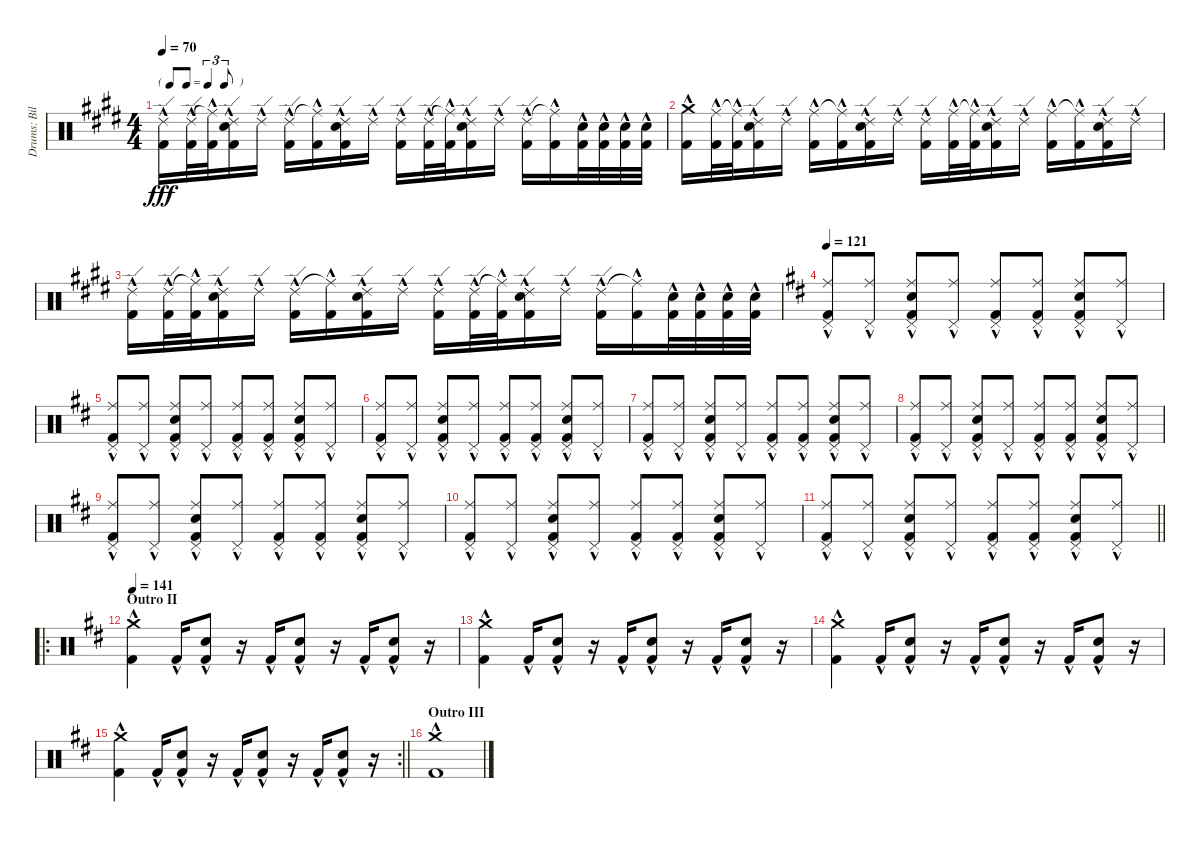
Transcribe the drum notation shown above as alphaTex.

\track ("Drums: Bill" "Drums: Bil") {instrument percussion}
\staff {score}
\articulation defaults
\ts (4 4)
\tf triplet8th
\tempo 70
\clef neutral
\ks e
("Ride (edge) 2"{hac} "Kick (hit) 2"{hac}).16{dy fff} ("Ride (edge) 2"{hac} "Kick (hit) 2"{hac}).32 ("Ride (middle)"{t} "Kick (hit) 2"{hac}).32 ("Ride (edge) 2"{hac} "Snare (hit) 2"{hac} "Kick (hit) 2"{hac}).16 "Ride (edge) 2"{hac}.16 ("Ride (edge) 2"{hac} "Kick (hit) 2"{hac}).16 ("Ride (middle)"{t} "Kick (hit) 2"{hac}).16 ("Ride (edge) 2"{hac} "Snare (hit) 2"{hac} "Kick (hit) 2"{hac}).16 "Ride (edge) 2"{hac}.16 ("Ride (edge) 2"{hac} "Kick (hit) 2"{hac}).16 ("Ride (edge) 2"{hac} "Kick (hit) 2"{hac}).32 ("Ride (middle)"{t} "Kick (hit) 2"{hac}).32 ("Ride (edge) 2"{hac} "Snare (hit) 2"{hac} "Kick (hit) 2"{hac}).16 "Ride (edge) 2"{hac}.16 ("Ride (edge) 2"{hac} "Kick (hit) 2"{hac}).16 ("Ride (middle)"{t} "Kick (hit) 2"{hac}).16 ("Snare (hit) 2"{hac} "Kick (hit) 2"{hac}).32 ("Snare (hit) 2"{hac} "Kick (hit) 2"{hac}).32 ("Snare (hit) 2"{hac} "Kick (hit) 2"{hac}).32 ("Snare (hit) 2"{hac} "Kick (hit) 2"{hac}).32 |
("Crash medium (hit)"{hac} "Kick (hit) 2"{hac}).16 ("Ride (middle)"{hac} "Kick (hit) 2"{hac}).32 ("Ride (middle)"{t} "Kick (hit) 2"{hac}).32 ("Ride (edge) 2"{hac} "Snare (hit) 2"{hac} "Kick (hit) 2"{hac}).16 "Ride (edge) 2"{hac}.16 ("Ride (middle)"{hac} "Kick (hit) 2"{hac}).16 ("Ride (middle)"{t} "Kick (hit) 2"{hac}).16 ("Ride (edge) 2"{hac} "Snare (hit) 2"{hac} "Kick (hit) 2"{hac}).16 "Ride (edge) 2"{hac}.16 ("Ride (edge) 2"{hac} "Kick (hit) 2"{hac}).16 ("Ride (middle)"{hac} "Kick (hit) 2"{hac}).32 ("Ride (middle)"{t} "Kick (hit) 2"{hac}).32 ("Ride (edge) 2"{hac} "Snare (hit) 2"{hac} "Kick (hit) 2"{hac}).16 "Ride (edge) 2"{hac}.16 ("Ride (middle)"{hac} "Kick (hit) 2"{hac}).16 ("Ride (middle)"{t} "Kick (hit) 2"{hac}).16 ("Ride (edge) 2"{hac} "Snare (hit) 2"{hac} "Kick (hit) 2"{hac}).16 "Ride (edge) 2"{hac}.16 |
("Ride (edge) 2"{hac} "Kick (hit) 2"{hac}).16 ("Ride (edge) 2"{hac} "Kick (hit) 2"{hac}).32 ("Ride (middle)"{t} "Kick (hit) 2"{hac}).32 ("Ride (edge) 2"{hac} "Snare (hit) 2"{hac} "Kick (hit) 2"{hac}).16 "Ride (edge) 2"{hac}.16 ("Ride (edge) 2"{hac} "Kick (hit) 2"{hac}).16 ("Ride (middle)"{t} "Kick (hit) 2"{hac}).16 ("Ride (edge) 2"{hac} "Snare (hit) 2"{hac} "Kick (hit) 2"{hac}).16 "Ride (edge) 2"{hac}.16 ("Ride (edge) 2"{hac} "Kick (hit) 2"{hac}).16 ("Ride (edge) 2"{hac} "Kick (hit) 2"{hac}).32 ("Ride (middle)"{t} "Kick (hit) 2"{hac}).32 ("Ride (edge) 2"{hac} "Snare (hit) 2"{hac} "Kick (hit) 2"{hac}).16 "Ride (edge) 2"{hac}.16 ("Ride (edge) 2"{hac} "Kick (hit) 2"{hac}).16 ("Ride (middle)"{t} "Kick (hit) 2"{hac}).16 ("Snare (hit) 2"{hac} "Kick (hit) 2"{hac}).32 ("Snare (hit) 2"{hac} "Kick (hit) 2"{hac}).32 ("Snare (hit) 2"{hac} "Kick (hit) 2"{hac}).32 ("Snare (hit) 2"{hac} "Kick (hit) 2"{hac}).32 |
\tempo 121
\ks d
("Ride (middle)"{hac} "Pedal Hi-Hat (hit)"{hac} "Kick (hit) 2"{hac}).8 ("Ride (middle)"{hac} "Pedal Hi-Hat (hit)"{hac}).8 ("Ride (middle)"{hac} "Pedal Hi-Hat (hit)"{hac} "Snare (hit) 2"{hac} "Kick (hit) 2"{hac}).8 ("Ride (middle)"{hac} "Pedal Hi-Hat (hit)"{hac}).8 ("Ride (middle)"{hac} "Pedal Hi-Hat (hit)"{hac} "Kick (hit) 2"{hac}).8 ("Ride (middle)"{hac} "Pedal Hi-Hat (hit)"{hac} "Kick (hit) 2"{hac}).8 ("Ride (middle)"{hac} "Pedal Hi-Hat (hit)"{hac} "Snare (hit) 2"{hac} "Kick (hit) 2"{hac}).8 ("Ride (middle)"{hac} "Pedal Hi-Hat (hit)"{hac}).8 |
("Ride (middle)"{hac} "Pedal Hi-Hat (hit)"{hac} "Kick (hit) 2"{hac}).8 ("Ride (middle)"{hac} "Pedal Hi-Hat (hit)"{hac}).8 ("Ride (middle)"{hac} "Pedal Hi-Hat (hit)"{hac} "Snare (hit) 2"{hac} "Kick (hit) 2"{hac}).8 ("Ride (middle)"{hac} "Pedal Hi-Hat (hit)"{hac}).8 ("Ride (middle)"{hac} "Pedal Hi-Hat (hit)"{hac} "Kick (hit) 2"{hac}).8 ("Ride (middle)"{hac} "Pedal Hi-Hat (hit)"{hac} "Kick (hit) 2"{hac}).8 ("Ride (middle)"{hac} "Pedal Hi-Hat (hit)"{hac} "Snare (hit) 2"{hac} "Kick (hit) 2"{hac}).8 ("Ride (middle)"{hac} "Pedal Hi-Hat (hit)"{hac}).8 |
("Ride (middle)"{hac} "Pedal Hi-Hat (hit)"{hac} "Kick (hit) 2"{hac}).8 ("Ride (middle)"{hac} "Pedal Hi-Hat (hit)"{hac}).8 ("Ride (middle)"{hac} "Pedal Hi-Hat (hit)"{hac} "Snare (hit) 2"{hac} "Kick (hit) 2"{hac}).8 ("Ride (middle)"{hac} "Pedal Hi-Hat (hit)"{hac}).8 ("Ride (middle)"{hac} "Pedal Hi-Hat (hit)"{hac} "Kick (hit) 2"{hac}).8 ("Ride (middle)"{hac} "Pedal Hi-Hat (hit)"{hac} "Kick (hit) 2"{hac}).8 ("Ride (middle)"{hac} "Pedal Hi-Hat (hit)"{hac} "Snare (hit) 2"{hac} "Kick (hit) 2"{hac}).8 ("Ride (middle)"{hac} "Pedal Hi-Hat (hit)"{hac}).8 |
("Ride (middle)"{hac} "Pedal Hi-Hat (hit)"{hac} "Kick (hit) 2"{hac}).8 ("Ride (middle)"{hac} "Pedal Hi-Hat (hit)"{hac}).8 ("Ride (middle)"{hac} "Pedal Hi-Hat (hit)"{hac} "Snare (hit) 2"{hac} "Kick (hit) 2"{hac}).8 ("Ride (middle)"{hac} "Pedal Hi-Hat (hit)"{hac}).8 ("Ride (middle)"{hac} "Pedal Hi-Hat (hit)"{hac} "Kick (hit) 2"{hac}).8 ("Ride (middle)"{hac} "Pedal Hi-Hat (hit)"{hac} "Kick (hit) 2"{hac}).8 ("Ride (middle)"{hac} "Pedal Hi-Hat (hit)"{hac} "Snare (hit) 2"{hac} "Kick (hit) 2"{hac}).8 ("Ride (middle)"{hac} "Pedal Hi-Hat (hit)"{hac}).8 |
("Ride (middle)"{hac} "Pedal Hi-Hat (hit)"{hac} "Kick (hit) 2"{hac}).8 ("Ride (middle)"{hac} "Pedal Hi-Hat (hit)"{hac}).8 ("Ride (middle)"{hac} "Pedal Hi-Hat (hit)"{hac} "Snare (hit) 2"{hac} "Kick (hit) 2"{hac}).8 ("Ride (middle)"{hac} "Pedal Hi-Hat (hit)"{hac}).8 ("Ride (middle)"{hac} "Pedal Hi-Hat (hit)"{hac} "Kick (hit) 2"{hac}).8 ("Ride (middle)"{hac} "Pedal Hi-Hat (hit)"{hac} "Kick (hit) 2"{hac}).8 ("Ride (middle)"{hac} "Pedal Hi-Hat (hit)"{hac} "Snare (hit) 2"{hac} "Kick (hit) 2"{hac}).8 ("Ride (middle)"{hac} "Pedal Hi-Hat (hit)"{hac}).8 |
("Ride (middle)"{hac} "Pedal Hi-Hat (hit)"{hac} "Kick (hit) 2"{hac}).8 ("Ride (middle)"{hac} "Pedal Hi-Hat (hit)"{hac}).8 ("Ride (middle)"{hac} "Pedal Hi-Hat (hit)"{hac} "Snare (hit) 2"{hac} "Kick (hit) 2"{hac}).8 ("Ride (middle)"{hac} "Pedal Hi-Hat (hit)"{hac}).8 ("Ride (middle)"{hac} "Pedal Hi-Hat (hit)"{hac} "Kick (hit) 2"{hac}).8 ("Ride (middle)"{hac} "Pedal Hi-Hat (hit)"{hac} "Kick (hit) 2"{hac}).8 ("Ride (middle)"{hac} "Pedal Hi-Hat (hit)"{hac} "Snare (hit) 2"{hac} "Kick (hit) 2"{hac}).8 ("Ride (middle)"{hac} "Pedal Hi-Hat (hit)"{hac}).8 |
("Ride (middle)"{hac} "Pedal Hi-Hat (hit)"{hac} "Kick (hit) 2"{hac}).8 ("Ride (middle)"{hac} "Pedal Hi-Hat (hit)"{hac}).8 ("Ride (middle)"{hac} "Pedal Hi-Hat (hit)"{hac} "Snare (hit) 2"{hac} "Kick (hit) 2"{hac}).8 ("Ride (middle)"{hac} "Pedal Hi-Hat (hit)"{hac}).8 ("Ride (middle)"{hac} "Pedal Hi-Hat (hit)"{hac} "Kick (hit) 2"{hac}).8 ("Ride (middle)"{hac} "Pedal Hi-Hat (hit)"{hac} "Kick (hit) 2"{hac}).8 ("Ride (middle)"{hac} "Pedal Hi-Hat (hit)"{hac} "Snare (hit) 2"{hac} "Kick (hit) 2"{hac}).8 ("Ride (middle)"{hac} "Pedal Hi-Hat (hit)"{hac}).8 |
\barLineRight lightlight
("Ride (middle)"{hac} "Pedal Hi-Hat (hit)"{hac} "Kick (hit) 2"{hac}).8 ("Ride (middle)"{hac} "Pedal Hi-Hat (hit)"{hac}).8 ("Ride (middle)"{hac} "Pedal Hi-Hat (hit)"{hac} "Snare (hit) 2"{hac} "Kick (hit) 2"{hac}).8 ("Ride (middle)"{hac} "Pedal Hi-Hat (hit)"{hac}).8 ("Ride (middle)"{hac} "Pedal Hi-Hat (hit)"{hac} "Kick (hit) 2"{hac}).8 ("Ride (middle)"{hac} "Pedal Hi-Hat (hit)"{hac} "Kick (hit) 2"{hac}).8 ("Ride (middle)"{hac} "Pedal Hi-Hat (hit)"{hac} "Snare (hit) 2"{hac} "Kick (hit) 2"{hac}).8 ("Ride (middle)"{hac} "Pedal Hi-Hat (hit)"{hac}).8 |
\ro
\section ("" "Outro II")
\tempo 141
("Crash medium (hit)"{hac} "Kick (hit) 2"{hac}).4 "Kick (hit) 2"{hac}.16 ("Snare (hit) 2"{hac} "Kick (hit) 2"{hac}).8 r.16 "Kick (hit) 2"{hac}.16 ("Snare (hit) 2"{hac} "Kick (hit) 2"{hac}).8 r.16 "Kick (hit) 2"{hac}.16 ("Snare (hit) 2"{hac} "Kick (hit) 2"{hac}).8 r.16 |
("Crash medium (hit)"{hac} "Kick (hit) 2"{hac}).4 "Kick (hit) 2"{hac}.16 ("Snare (hit) 2"{hac} "Kick (hit) 2"{hac}).8 r.16 "Kick (hit) 2"{hac}.16 ("Snare (hit) 2"{hac} "Kick (hit) 2"{hac}).8 r.16 "Kick (hit) 2"{hac}.16 ("Snare (hit) 2"{hac} "Kick (hit) 2"{hac}).8 r.16 |
("Crash medium (hit)"{hac} "Kick (hit) 2"{hac}).4 "Kick (hit) 2"{hac}.16 ("Snare (hit) 2"{hac} "Kick (hit) 2"{hac}).8 r.16 "Kick (hit) 2"{hac}.16 ("Snare (hit) 2"{hac} "Kick (hit) 2"{hac}).8 r.16 "Kick (hit) 2"{hac}.16 ("Snare (hit) 2"{hac} "Kick (hit) 2"{hac}).8 r.16 |
\rc 2
\barLineRight lightlight
("Crash medium (hit)"{hac} "Kick (hit) 2"{hac}).4 "Kick (hit) 2"{hac}.16 ("Snare (hit) 2"{hac} "Kick (hit) 2"{hac}).8 r.16 "Kick (hit) 2"{hac}.16 ("Snare (hit) 2"{hac} "Kick (hit) 2"{hac}).8 r.16 "Kick (hit) 2"{hac}.16 ("Snare (hit) 2"{hac} "Kick (hit) 2"{hac}).8 r.16 |
\section ("" "Outro III")
("Crash medium (hit)"{hac} "Kick (hit) 2"{hac}).1
